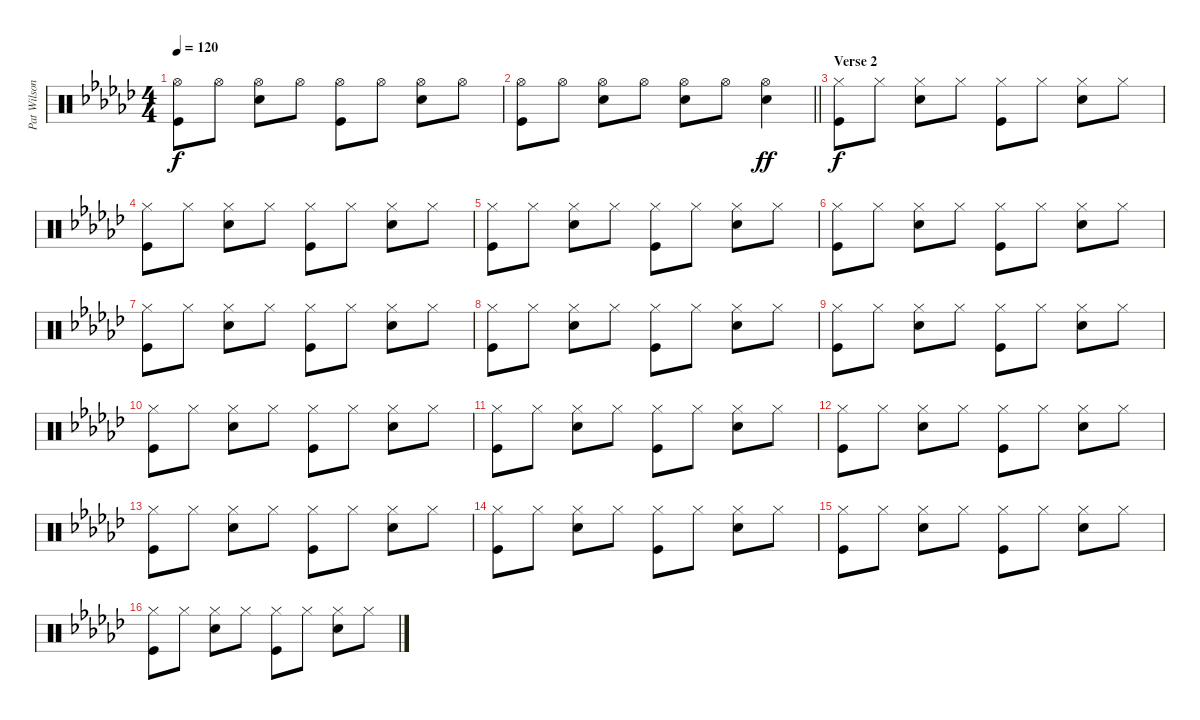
\track ("Pat Wilson" "Pat Wilson") {instrument percussion}
\staff {score}
\articulation defaults
\ts (4 4)
\tempo 120
\clef neutral
\ks gb
("Hi-Hat (open)" "Kick (hit)").8{dy f} "Hi-Hat (open)".8 ("Hi-Hat (open)" "Snare (hit) 2").8 "Hi-Hat (open)".8 ("Hi-Hat (open)" "Kick (hit)").8 "Hi-Hat (open)".8 ("Hi-Hat (open)" "Snare (hit) 2").8 "Hi-Hat (open)".8 |
\barLineRight lightlight
("Hi-Hat (open)" "Kick (hit)").8 "Hi-Hat (open)".8 ("Hi-Hat (open)" "Snare (hit) 2").8 "Hi-Hat (open)".8 ("Hi-Hat (open)" "Snare (hit) 2").8 "Hi-Hat (open)".8 ("Hi-Hat (open)" "Snare (hit) 2").4{dy ff} |
\section ("" "Verse 2")
("Hi-Hat (closed)" "Kick (hit)").8{dy f} "Hi-Hat (closed)".8 ("Hi-Hat (closed)" "Snare (hit) 2").8 "Hi-Hat (closed)".8 ("Hi-Hat (closed)" "Kick (hit)").8 "Hi-Hat (closed)".8 ("Hi-Hat (closed)" "Snare (hit) 2").8 "Hi-Hat (closed)".8 |
("Hi-Hat (closed)" "Kick (hit)").8 "Hi-Hat (closed)".8 ("Hi-Hat (closed)" "Snare (hit) 2").8 "Hi-Hat (closed)".8 ("Hi-Hat (closed)" "Kick (hit)").8 "Hi-Hat (closed)".8 ("Hi-Hat (closed)" "Snare (hit) 2").8 "Hi-Hat (closed)".8 |
("Hi-Hat (closed)" "Kick (hit)").8 "Hi-Hat (closed)".8 ("Hi-Hat (closed)" "Snare (hit) 2").8 "Hi-Hat (closed)".8 ("Hi-Hat (closed)" "Kick (hit)").8 "Hi-Hat (closed)".8 ("Hi-Hat (closed)" "Snare (hit) 2").8 "Hi-Hat (closed)".8 |
("Hi-Hat (closed)" "Kick (hit)").8 "Hi-Hat (closed)".8 ("Hi-Hat (closed)" "Snare (hit) 2").8 "Hi-Hat (closed)".8 ("Hi-Hat (closed)" "Kick (hit)").8 "Hi-Hat (closed)".8 ("Hi-Hat (closed)" "Snare (hit) 2").8 "Hi-Hat (closed)".8 |
("Hi-Hat (closed)" "Kick (hit)").8 "Hi-Hat (closed)".8 ("Hi-Hat (closed)" "Snare (hit) 2").8 "Hi-Hat (closed)".8 ("Hi-Hat (closed)" "Kick (hit)").8 "Hi-Hat (closed)".8 ("Hi-Hat (closed)" "Snare (hit) 2").8 "Hi-Hat (closed)".8 |
("Hi-Hat (closed)" "Kick (hit)").8 "Hi-Hat (closed)".8 ("Hi-Hat (closed)" "Snare (hit) 2").8 "Hi-Hat (closed)".8 ("Hi-Hat (closed)" "Kick (hit)").8 "Hi-Hat (closed)".8 ("Hi-Hat (closed)" "Snare (hit) 2").8 "Hi-Hat (closed)".8 |
("Hi-Hat (closed)" "Kick (hit)").8 "Hi-Hat (closed)".8 ("Hi-Hat (closed)" "Snare (hit) 2").8 "Hi-Hat (closed)".8 ("Hi-Hat (closed)" "Kick (hit)").8 "Hi-Hat (closed)".8 ("Hi-Hat (closed)" "Snare (hit) 2").8 "Hi-Hat (closed)".8 |
("Hi-Hat (closed)" "Kick (hit)").8 "Hi-Hat (closed)".8 ("Hi-Hat (closed)" "Snare (hit) 2").8 "Hi-Hat (closed)".8 ("Hi-Hat (closed)" "Kick (hit)").8 "Hi-Hat (closed)".8 ("Hi-Hat (closed)" "Snare (hit) 2").8 "Hi-Hat (closed)".8 |
("Hi-Hat (closed)" "Kick (hit)").8 "Hi-Hat (closed)".8 ("Hi-Hat (closed)" "Snare (hit) 2").8 "Hi-Hat (closed)".8 ("Hi-Hat (closed)" "Kick (hit)").8 "Hi-Hat (closed)".8 ("Hi-Hat (closed)" "Snare (hit) 2").8 "Hi-Hat (closed)".8 |
("Hi-Hat (closed)" "Kick (hit)").8 "Hi-Hat (closed)".8 ("Hi-Hat (closed)" "Snare (hit) 2").8 "Hi-Hat (closed)".8 ("Hi-Hat (closed)" "Kick (hit)").8 "Hi-Hat (closed)".8 ("Hi-Hat (closed)" "Snare (hit) 2").8 "Hi-Hat (closed)".8 |
("Hi-Hat (closed)" "Kick (hit)").8 "Hi-Hat (closed)".8 ("Hi-Hat (closed)" "Snare (hit) 2").8 "Hi-Hat (closed)".8 ("Hi-Hat (closed)" "Kick (hit)").8 "Hi-Hat (closed)".8 ("Hi-Hat (closed)" "Snare (hit) 2").8 "Hi-Hat (closed)".8 |
("Hi-Hat (closed)" "Kick (hit)").8 "Hi-Hat (closed)".8 ("Hi-Hat (closed)" "Snare (hit) 2").8 "Hi-Hat (closed)".8 ("Hi-Hat (closed)" "Kick (hit)").8 "Hi-Hat (closed)".8 ("Hi-Hat (closed)" "Snare (hit) 2").8 "Hi-Hat (closed)".8 |
("Hi-Hat (closed)" "Kick (hit)").8 "Hi-Hat (closed)".8 ("Hi-Hat (closed)" "Snare (hit) 2").8 "Hi-Hat (closed)".8 ("Hi-Hat (closed)" "Kick (hit)").8 "Hi-Hat (closed)".8 ("Hi-Hat (closed)" "Snare (hit) 2").8 "Hi-Hat (closed)".8 |
("Hi-Hat (closed)" "Kick (hit)").8 "Hi-Hat (closed)".8 ("Hi-Hat (closed)" "Snare (hit) 2").8 "Hi-Hat (closed)".8 ("Hi-Hat (closed)" "Kick (hit)").8 "Hi-Hat (closed)".8 ("Hi-Hat (closed)" "Snare (hit) 2").8 "Hi-Hat (closed)".8
